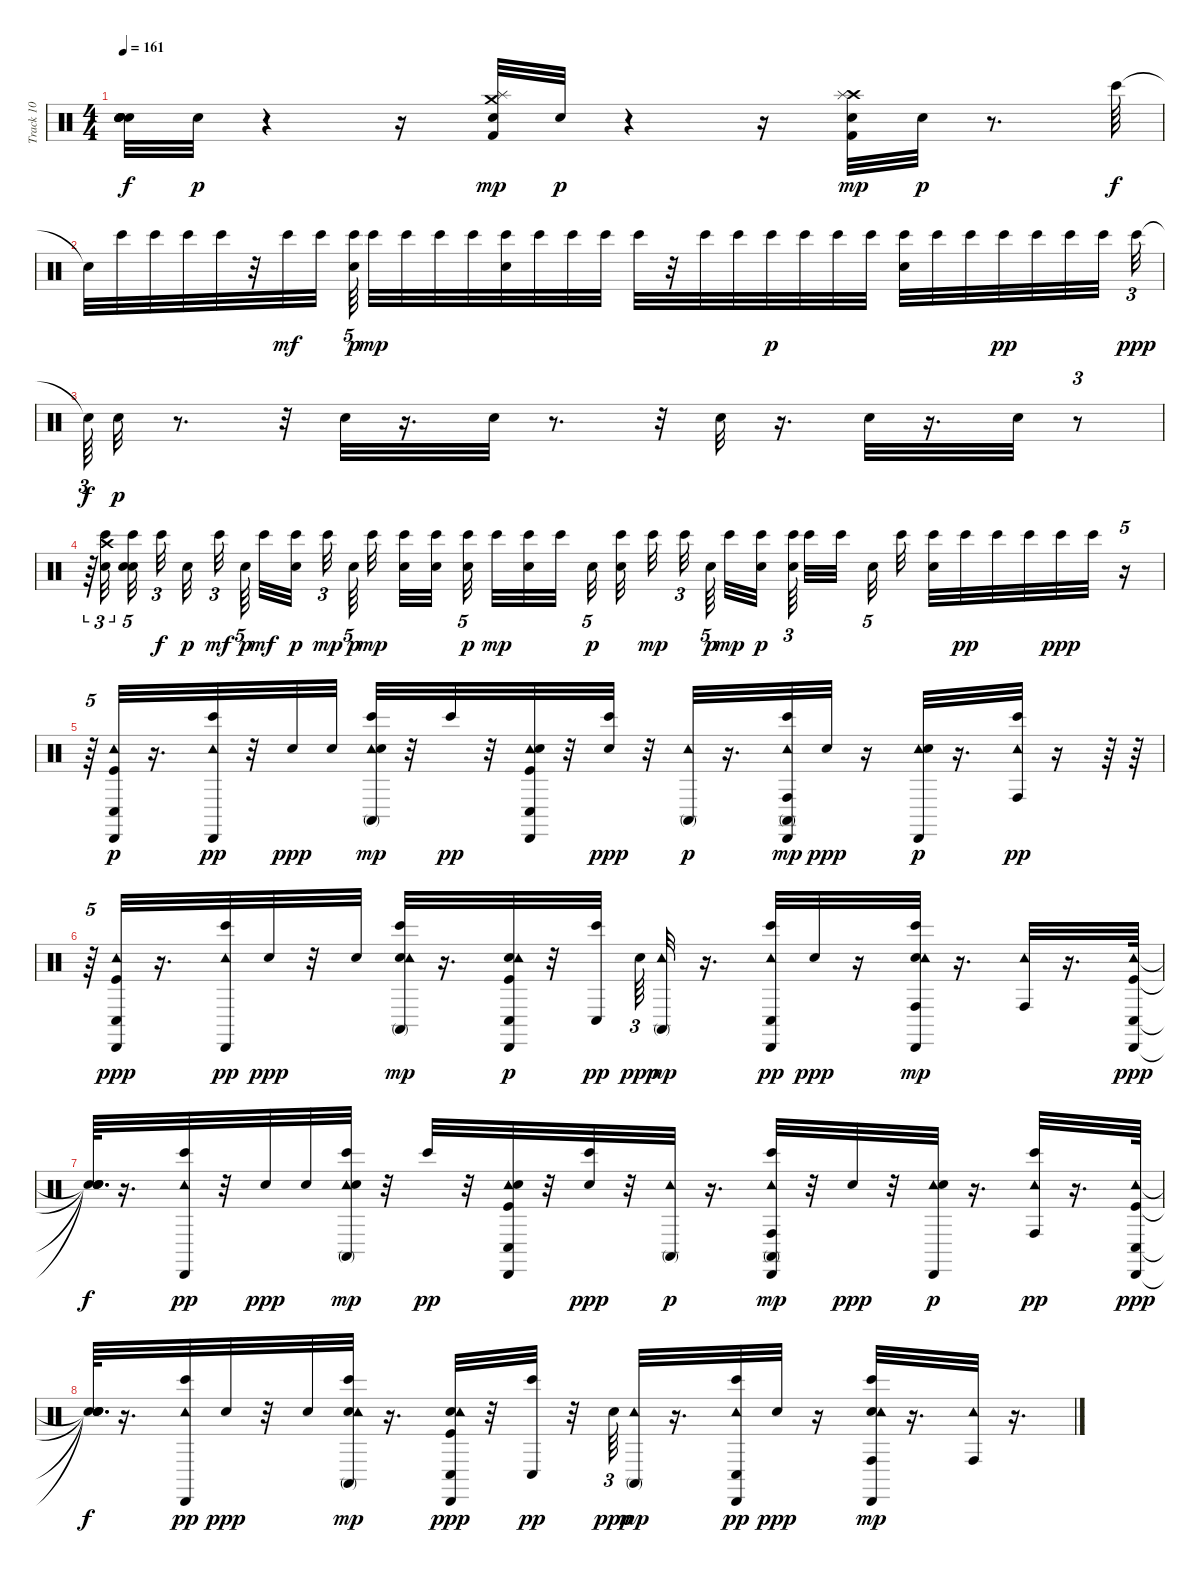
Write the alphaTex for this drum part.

\track ("Track 10" "Track 10") {instrument percussion}
\staff {score}
\articulation defaults
\ts (4 4)
\tempo 161
\clef neutral
\ks c
("Snare (hit)"{t} "Snare (hit)"{t} "Snare (hit)"{t} "Snare (hit)"{t} "Snare (hit)"{t} "Snare (hit)"{t}).32{dy f} "Electric Snare (hit)".32{dy p} r.4 r.16 ("Crash medium (hit)" "Splash (hit)" "Kick (hit) 2" "Electric Snare (hit)").32{dy mp} "Electric Snare (hit)".32{dy p} r.4 r.16 ("Crash high (hit)" "Splash (hit)" "Electric Snare (hit)" "Kick (hit) 2").32{dy mp} "Electric Snare (hit)".32{dy p} r.8{d} "Bongo High (hit)".64{dy f} |
"Snare (hit)"{t}.32 "Bongo High (hit)".32 "Bongo High (hit)".32 "Bongo High (hit)".32 "Bongo High (hit)".32 r.32 "Bongo High (hit)".32{dy mf} "Bongo High (hit)".32 ("Bongo High (hit)" "Electric Snare (hit)").64{tu (5 4) dy p beam splitsecondary} "Bongo High (hit)".32{dy mp} "Bongo High (hit)".32 "Bongo High (hit)".32 "Bongo High (hit)".32 ("Electric Snare (hit)" "Bongo High (hit)").32 "Bongo High (hit)".32 "Bongo High (hit)".32 "Bongo High (hit)".32 "Bongo High (hit)".32 r.32 "Bongo High (hit)".32 "Bongo High (hit)".32 "Bongo High (hit)".32{dy p} "Bongo High (hit)".32 "Bongo High (hit)".32 "Bongo High (hit)".32 ("Electric Snare (hit)" "Bongo High (hit)").32 "Bongo High (hit)".32 "Bongo High (hit)".32 "Bongo High (hit)".32{dy pp} "Bongo High (hit)".32 "Bongo High (hit)".32 "Bongo High (hit)".32{beam splitsecondary} "Bongo High (hit)".32{tu (3 2) dy ppp} |
"Snare (hit)"{t}.64{tu (3 2) dy f} "Electric Snare (hit)".32{dy p} r.8{d} r.32 "Electric Snare (hit)".32 r.16{d} "Electric Snare (hit)".32 r.8{d} r.32 "Electric Snare (hit)".32 r.16{d} "Electric Snare (hit)".32 r.16{d} "Electric Snare (hit)".32 r.8{tu (3 2)} |
r.64{tu (3 2)} ("Crash high (hit)" "Electric Snare (hit)" "Bongo High (hit)").32{tu (3 2) beam splitsecondary} ("Electric Snare (hit)" "Bongo High (hit)" "Electric Snare (hit)").32{tu (5 4)} "Bongo High (hit)".32{tu (3 2) dy f beam splitsecondary} "Electric Snare (hit)".32{dy p beam splitsecondary} "Bongo High (hit)".32{tu (3 2) dy mf} "Electric Snare (hit)".64{tu (5 4) dy p beam splitsecondary} "Bongo High (hit)".32{dy mf} ("Bongo High (hit)" "Electric Snare (hit)").32{dy p beam splitsecondary} "Bongo High (hit)".32{tu (3 2) dy mp} "Electric Snare (hit)".64{tu (5 4) dy p beam splitsecondary} "Bongo High (hit)".32{dy mp} ("Electric Snare (hit)" "Bongo High (hit)").32 ("Electric Snare (hit)" "Bongo High (hit)").32{beam splitsecondary} ("Bongo High (hit)" "Electric Snare (hit)").32{tu (5 4) dy p beam splitsecondary} "Bongo High (hit)".32{dy mp} ("Electric Snare (hit)" "Bongo High (hit)").32 "Bongo High (hit)".32{beam splitsecondary} "Electric Snare (hit)".32{tu (5 4) dy p} ("Bongo High (hit)" "Electric Snare (hit)").32 "Bongo High (hit)".32{dy mp beam splitsecondary} "Bongo High (hit)".32{tu (3 2)} "Electric Snare (hit)".64{tu (5 4) dy p beam splitsecondary} "Bongo High (hit)".32{dy mp} ("Bongo High (hit)" "Electric Snare (hit)").32{dy p beam splitsecondary} ("Bongo High (hit)" "Electric Snare (hit)").64{tu (3 2) beam splitsecondary} "Bongo High (hit)".32 "Bongo High (hit)".32{beam splitsecondary} "Electric Snare (hit)".32{tu (5 4)} "Bongo High (hit)".32 ("Electric Snare (hit)" "Bongo High (hit)").32 "Bongo High (hit)".32{dy pp} "Bongo High (hit)".32 "Bongo High (hit)".32 "Bongo High (hit)".32{dy ppp} "Bongo High (hit)".32 r.16{tu (5 4)} |
r.64{tu (5 4)} ("Cabasa (hit)" "Conga low (hit)" "Tambourine (hit)" "Kick (hit)").32{dy p} r.16{d} ("Tambourine (hit)" "Cabasa (hit)" "Bongo High (hit)").32{dy pp} r.32 "Electric Snare (hit)".32{dy ppp} "Electric Snare (hit)".32 ("Tambourine (hit)" "Bongo High (hit)" "Conga high (mute)" "Electric Snare (hit)").32{dy mp} r.32 "Bongo High (hit)".32{dy pp} r.32 ("Tambourine (hit)" "Conga low (hit)" "Cabasa (hit)" "Kick (hit)" "Electric Snare (hit)").32 r.32 ("Bongo High (hit)" "Electric Snare (hit)").32{dy ppp} r.32 ("Tambourine (hit)" "Conga high (mute)").32{dy p} r.16{d} ("Tambourine (hit)" "Cabasa (hit)" "Bongo High (hit)" "Conga high (mute)" "Conga high (hit)").32{dy mp} "Electric Snare (hit)".32{dy ppp} r.16 ("Tambourine (hit)" "Cabasa (hit)" "Electric Snare (hit)").32{dy p} r.16{d} ("Tambourine (hit)" "Conga high (hit)" "Bongo High (hit)").32{dy pp} r.16 r.64 r.64 |
r.64{tu (5 4)} ("Kick (hit)" "Tambourine (hit)" "Cabasa (hit)" "Conga low (hit)").32{dy ppp} r.16{d} ("Tambourine (hit)" "Cabasa (hit)" "Bongo High (hit)").32{dy pp} "Electric Snare (hit)".32{dy ppp} r.32 "Electric Snare (hit)".32 ("Electric Snare (hit)" "Tambourine (hit)" "Bongo High (hit)" "Conga high (mute)").32{dy mp} r.16{d} ("Electric Snare (hit)" "Tambourine (hit)" "Cabasa (hit)" "Conga low (hit)" "Kick (hit)").32{dy p} r.32 ("Bongo High (hit)" "Conga low (hit)").32{dy pp beam splitsecondary} "Electric Snare (hit)".64{tu (3 2) dy ppp} ("Tambourine (hit)" "Conga high (mute)").32{dy mp} r.16{d} ("Bongo High (hit)" "Tambourine (hit)" "Cabasa (hit)" "Conga low (hit)").32{dy pp} "Electric Snare (hit)".32{dy ppp} r.16 ("Electric Snare (hit)" "Bongo High (hit)" "Tambourine (hit)" "Cabasa (hit)" "Conga high (hit)").32{dy mp} r.16{d} ("Tambourine (hit)" "Conga high (hit)").32 r.16{d} ("Kick (hit)" "Tambourine (hit)" "Cabasa (hit)" "Conga low (hit)").64{dy ppp} |
("Snare (hit)"{t} "Snare (hit)"{t} "Snare (hit)"{t} "Snare (hit)"{t}).64{d dy f} r.16{d} ("Tambourine (hit)" "Cabasa (hit)" "Bongo High (hit)").32{dy pp} r.32 "Electric Snare (hit)".32{dy ppp} "Electric Snare (hit)".32 ("Tambourine (hit)" "Bongo High (hit)" "Conga high (mute)" "Electric Snare (hit)").32{dy mp} r.32 "Bongo High (hit)".32{dy pp} r.32 ("Tambourine (hit)" "Conga low (hit)" "Cabasa (hit)" "Kick (hit)" "Electric Snare (hit)").32 r.32 ("Bongo High (hit)" "Electric Snare (hit)").32{dy ppp} r.32 ("Tambourine (hit)" "Conga high (mute)").32{dy p} r.16{d} ("Tambourine (hit)" "Cabasa (hit)" "Bongo High (hit)" "Conga high (mute)" "Conga high (hit)").32{dy mp} r.32 "Electric Snare (hit)".32{dy ppp} r.32 ("Tambourine (hit)" "Cabasa (hit)" "Electric Snare (hit)").32{dy p} r.16{d} ("Tambourine (hit)" "Conga high (hit)" "Bongo High (hit)").32{dy pp} r.16{d} ("Kick (hit)" "Tambourine (hit)" "Cabasa (hit)" "Conga low (hit)").64{dy ppp} |
("Snare (hit)"{t} "Snare (hit)"{t} "Snare (hit)"{t} "Snare (hit)"{t}).64{d dy f} r.16{d} ("Tambourine (hit)" "Cabasa (hit)" "Bongo High (hit)").32{dy pp} "Electric Snare (hit)".32{dy ppp} r.32 "Electric Snare (hit)".32 ("Electric Snare (hit)" "Tambourine (hit)" "Bongo High (hit)" "Conga high (mute)").32{dy mp} r.16{d} ("Kick (hit)" "Electric Snare (hit)" "Tambourine (hit)" "Cabasa (hit)" "Conga low (hit)").32{dy ppp} r.32 ("Bongo High (hit)" "Conga low (hit)").32{dy pp} r.32 "Electric Snare (hit)".64{tu (3 2) dy ppp} ("Tambourine (hit)" "Conga high (mute)").32{dy mp} r.16{d} ("Bongo High (hit)" "Tambourine (hit)" "Cabasa (hit)" "Conga low (hit)").32{dy pp} "Electric Snare (hit)".32{dy ppp} r.16 ("Electric Snare (hit)" "Bongo High (hit)" "Tambourine (hit)" "Cabasa (hit)" "Conga high (hit)").32{dy mp} r.16{d} ("Tambourine (hit)" "Conga high (hit)").32 r.16{d}
